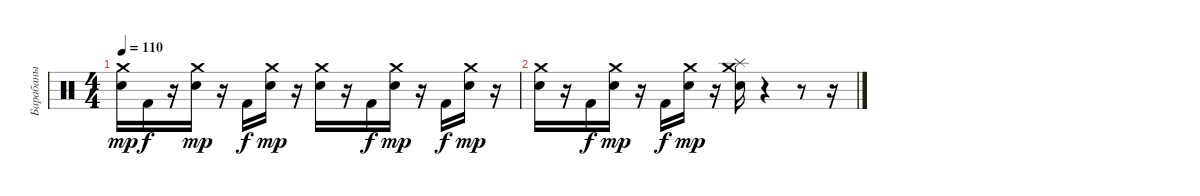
\track ("Барабаны" "Барабаны") {instrument percussion}
\staff {score}
\articulation defaults
\ts (4 4)
\tempo 110
\clef neutral
\ks c
("Crash medium (hit)" "Snare (hit) 2").16{dy mp} "Kick (hit) 2".16{dy f} r.16 ("Crash medium (hit)" "Snare (hit) 2").16{dy mp} r.16 "Kick (hit) 2".16{dy f} ("Crash medium (hit)" "Snare (hit) 2").16{dy mp} r.16 ("Crash medium (hit)" "Snare (hit) 2").16 r.16 "Kick (hit) 2".16{dy f} ("Crash medium (hit)" "Snare (hit) 2").16{dy mp} r.16 "Kick (hit) 2".16{dy f} ("Crash medium (hit)" "Snare (hit) 2").16{dy mp} r.16 |
("Crash medium (hit)" "Snare (hit) 2").16 r.16 "Kick (hit) 2".16{dy f} ("Crash medium (hit)" "Snare (hit) 2").16{dy mp} r.16 "Kick (hit) 2".16{dy f} ("Crash medium (hit)" "Snare (hit) 2").16{dy mp} r.16 ("Crash medium (hit)" "Splash (hit)" "Snare (hit) 2").16 r.4 r.8 r.16
